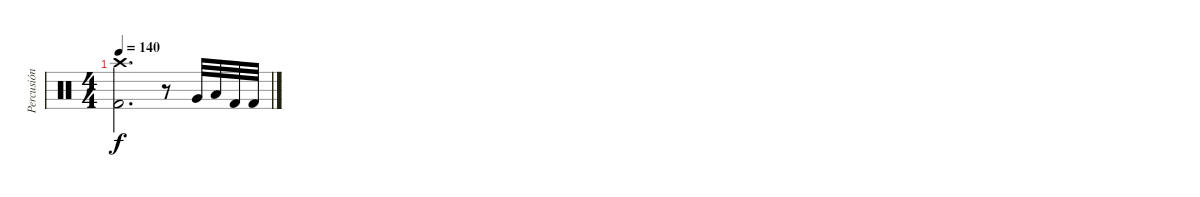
\track ("Percusión" "Percusión") {instrument percussion}
\staff {score}
\articulation defaults
\ts (4 4)
\tempo 140
\clef neutral
\ks c
("Crash high (hit)" "Kick (hit) 2").2{d dy f} r.8 "Very Low Tom (hit)".32 "Low Tom (hit)".32 "Kick (hit) 2".32 "Kick (hit) 2".32
